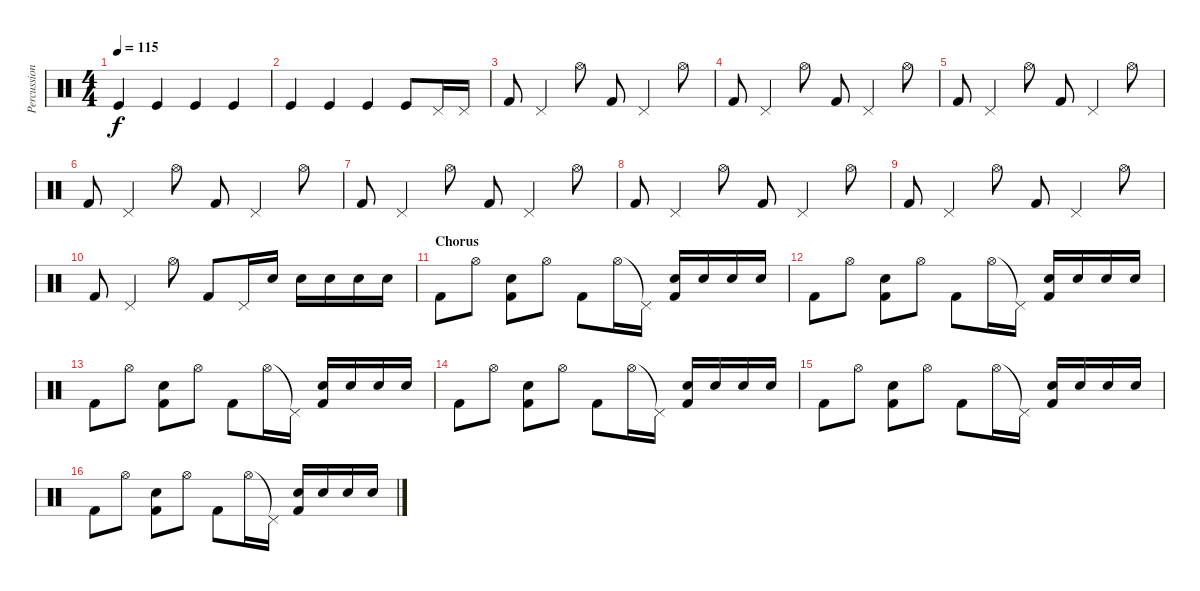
\track ("Percussion" "Percussion") {instrument percussion}
\staff {score}
\articulation defaults
\ts (4 4)
\tempo 115
\clef neutral
\ks c "Kick (hit)".4{dy f} "Kick (hit)".4 "Kick (hit)".4 "Kick (hit)".4
|
"Kick (hit)".4 "Kick (hit)".4 "Kick (hit)".4 "Kick (hit)".8 "Pedal Hi-Hat (hit)".16 "Pedal Hi-Hat (hit)".16 |
"Kick (hit) 2".8 "Pedal Hi-Hat (hit)".4 "Hi-Hat (open)".8 "Kick (hit) 2".8 "Pedal Hi-Hat (hit)".4 "Hi-Hat (open)".8 |
"Kick (hit) 2".8 "Pedal Hi-Hat (hit)".4 "Hi-Hat (open)".8 "Kick (hit) 2".8 "Pedal Hi-Hat (hit)".4 "Hi-Hat (open)".8 |
"Kick (hit) 2".8 "Pedal Hi-Hat (hit)".4 "Hi-Hat (open)".8 "Kick (hit) 2".8 "Pedal Hi-Hat (hit)".4 "Hi-Hat (open)".8 |
"Kick (hit) 2".8 "Pedal Hi-Hat (hit)".4 "Hi-Hat (open)".8 "Kick (hit) 2".8 "Pedal Hi-Hat (hit)".4 "Hi-Hat (open)".8 |
"Kick (hit) 2".8 "Pedal Hi-Hat (hit)".4 "Hi-Hat (open)".8 "Kick (hit) 2".8 "Pedal Hi-Hat (hit)".4 "Hi-Hat (open)".8 |
"Kick (hit) 2".8 "Pedal Hi-Hat (hit)".4 "Hi-Hat (open)".8 "Kick (hit) 2".8 "Pedal Hi-Hat (hit)".4 "Hi-Hat (open)".8 |
"Kick (hit) 2".8 "Pedal Hi-Hat (hit)".4 "Hi-Hat (open)".8 "Kick (hit) 2".8 "Pedal Hi-Hat (hit)".4 "Hi-Hat (open)".8 |
"Kick (hit) 2".8 "Pedal Hi-Hat (hit)".4 "Hi-Hat (open)".8 "Kick (hit) 2".8 "Pedal Hi-Hat (hit)".16 "Snare (hit) 2".16 "Snare (hit) 2".16 "Snare (hit) 2".16 "Snare (hit) 2".16 "Snare (hit) 2".16 |
\section ("" "Chorus")
"Kick (hit) 2".8 "Hi-Hat (open)".8 ("Electric Snare (hit)" "Kick (hit) 2").8 "Hi-Hat (open)".8 "Kick (hit) 2".8 "Hi-Hat (open)".16 "Pedal Hi-Hat (hit)"{t}.16 ("Electric Snare (hit)" "Kick (hit) 2").16 "Electric Snare (hit)".16 "Electric Snare (hit)".16 "Electric Snare (hit)".16 |
"Kick (hit) 2".8 "Hi-Hat (open)".8 ("Electric Snare (hit)" "Kick (hit) 2").8 "Hi-Hat (open)".8 "Kick (hit) 2".8 "Hi-Hat (open)".16 "Pedal Hi-Hat (hit)"{t}.16 ("Electric Snare (hit)" "Kick (hit) 2").16 "Electric Snare (hit)".16 "Electric Snare (hit)".16 "Electric Snare (hit)".16 |
"Kick (hit) 2".8 "Hi-Hat (open)".8 ("Electric Snare (hit)" "Kick (hit) 2").8 "Hi-Hat (open)".8 "Kick (hit) 2".8 "Hi-Hat (open)".16 "Pedal Hi-Hat (hit)"{t}.16 ("Electric Snare (hit)" "Kick (hit) 2").16 "Electric Snare (hit)".16 "Electric Snare (hit)".16 "Electric Snare (hit)".16 |
"Kick (hit) 2".8 "Hi-Hat (open)".8 ("Electric Snare (hit)" "Kick (hit) 2").8 "Hi-Hat (open)".8 "Kick (hit) 2".8 "Hi-Hat (open)".16 "Pedal Hi-Hat (hit)"{t}.16 ("Electric Snare (hit)" "Kick (hit) 2").16 "Electric Snare (hit)".16 "Electric Snare (hit)".16 "Electric Snare (hit)".16 |
"Kick (hit) 2".8 "Hi-Hat (open)".8 ("Electric Snare (hit)" "Kick (hit) 2").8 "Hi-Hat (open)".8 "Kick (hit) 2".8 "Hi-Hat (open)".16 "Pedal Hi-Hat (hit)"{t}.16 ("Electric Snare (hit)" "Kick (hit) 2").16 "Electric Snare (hit)".16 "Electric Snare (hit)".16 "Electric Snare (hit)".16 |
"Kick (hit) 2".8 "Hi-Hat (open)".8 ("Electric Snare (hit)" "Kick (hit) 2").8 "Hi-Hat (open)".8 "Kick (hit) 2".8 "Hi-Hat (open)".16 "Pedal Hi-Hat (hit)"{t}.16 ("Electric Snare (hit)" "Kick (hit) 2").16 "Electric Snare (hit)".16 "Electric Snare (hit)".16 "Electric Snare (hit)".16
